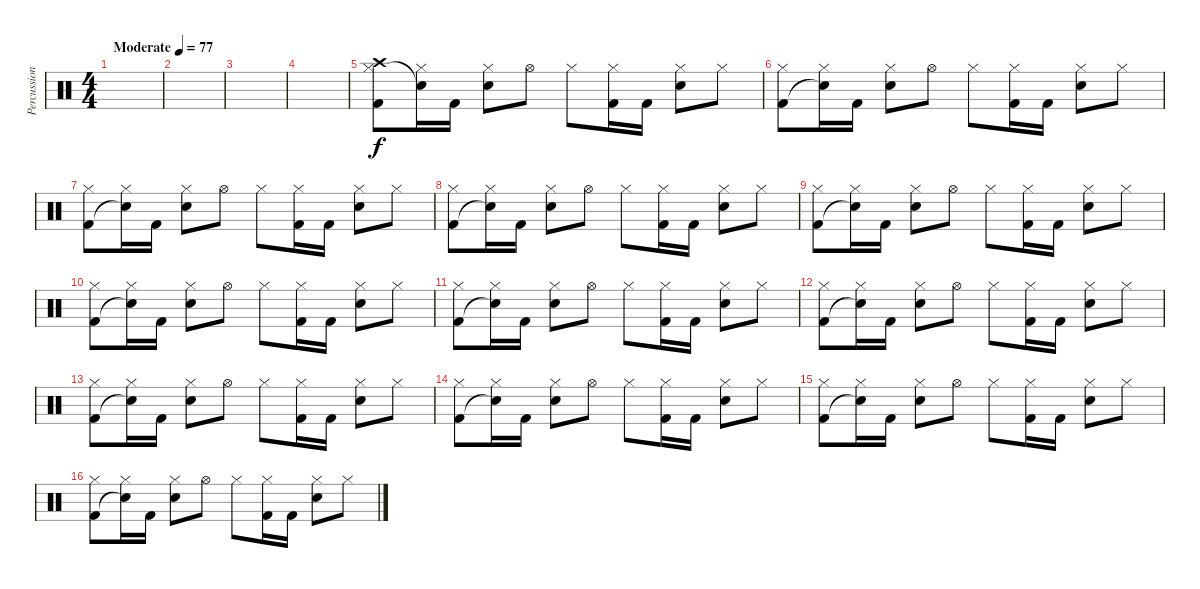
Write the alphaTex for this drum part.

\track ("Percussion" "Percussion") {instrument percussion}
\staff {score}
\articulation defaults
\ts (4 4)
\tempo (77 "Moderate")
\clef neutral
\ks c
|
|
|
|
("Crash high (hit)" "Hi-Hat (closed)" "Kick (hit) 2").8 ("Hi-Hat (closed)" "Snare (hit)"{t}).16 "Kick (hit) 2".16 ("Hi-Hat (closed)" "Electric Snare (hit)").8 "Hi-Hat (open)".8 "Hi-Hat (closed)".8 ("Hi-Hat (closed)" "Kick (hit) 2").16 "Kick (hit) 2".16 ("Hi-Hat (closed)" "Electric Snare (hit)").8 "Hi-Hat (closed)".8 |
("Hi-Hat (closed)" "Kick (hit) 2").8 ("Hi-Hat (closed)" "Snare (hit)"{t}).16 "Kick (hit) 2".16 ("Hi-Hat (closed)" "Electric Snare (hit)").8 "Hi-Hat (open)".8 "Hi-Hat (closed)".8 ("Hi-Hat (closed)" "Kick (hit) 2").16 "Kick (hit) 2".16 ("Hi-Hat (closed)" "Electric Snare (hit)").8 "Hi-Hat (closed)".8 |
("Hi-Hat (closed)" "Kick (hit) 2").8 ("Hi-Hat (closed)" "Snare (hit)"{t}).16 "Kick (hit) 2".16 ("Hi-Hat (closed)" "Electric Snare (hit)").8 "Hi-Hat (open)".8 "Hi-Hat (closed)".8 ("Hi-Hat (closed)" "Kick (hit) 2").16 "Kick (hit) 2".16 ("Hi-Hat (closed)" "Electric Snare (hit)").8 "Hi-Hat (closed)".8 |
("Hi-Hat (closed)" "Kick (hit) 2").8 ("Hi-Hat (closed)" "Snare (hit)"{t}).16 "Kick (hit) 2".16 ("Hi-Hat (closed)" "Electric Snare (hit)").8 "Hi-Hat (open)".8 "Hi-Hat (closed)".8 ("Hi-Hat (closed)" "Kick (hit) 2").16 "Kick (hit) 2".16 ("Hi-Hat (closed)" "Electric Snare (hit)").8 "Hi-Hat (closed)".8 |
("Hi-Hat (closed)" "Kick (hit) 2").8 ("Hi-Hat (closed)" "Snare (hit)"{t}).16 "Kick (hit) 2".16 ("Hi-Hat (closed)" "Electric Snare (hit)").8 "Hi-Hat (open)".8 "Hi-Hat (closed)".8 ("Hi-Hat (closed)" "Kick (hit) 2").16 "Kick (hit) 2".16 ("Hi-Hat (closed)" "Electric Snare (hit)").8 "Hi-Hat (closed)".8 |
("Hi-Hat (closed)" "Kick (hit) 2").8 ("Hi-Hat (closed)" "Snare (hit)"{t}).16 "Kick (hit) 2".16 ("Hi-Hat (closed)" "Electric Snare (hit)").8 "Hi-Hat (open)".8 "Hi-Hat (closed)".8 ("Hi-Hat (closed)" "Kick (hit) 2").16 "Kick (hit) 2".16 ("Hi-Hat (closed)" "Electric Snare (hit)").8 "Hi-Hat (closed)".8 |
("Hi-Hat (closed)" "Kick (hit) 2").8 ("Hi-Hat (closed)" "Snare (hit)"{t}).16 "Kick (hit) 2".16 ("Hi-Hat (closed)" "Electric Snare (hit)").8 "Hi-Hat (open)".8 "Hi-Hat (closed)".8 ("Hi-Hat (closed)" "Kick (hit) 2").16 "Kick (hit) 2".16 ("Hi-Hat (closed)" "Electric Snare (hit)").8 "Hi-Hat (closed)".8 |
("Hi-Hat (closed)" "Kick (hit) 2").8 ("Hi-Hat (closed)" "Snare (hit)"{t}).16 "Kick (hit) 2".16 ("Hi-Hat (closed)" "Electric Snare (hit)").8 "Hi-Hat (open)".8 "Hi-Hat (closed)".8 ("Hi-Hat (closed)" "Kick (hit) 2").16 "Kick (hit) 2".16 ("Hi-Hat (closed)" "Electric Snare (hit)").8 "Hi-Hat (closed)".8 |
("Hi-Hat (closed)" "Kick (hit) 2").8 ("Hi-Hat (closed)" "Snare (hit)"{t}).16 "Kick (hit) 2".16 ("Hi-Hat (closed)" "Electric Snare (hit)").8 "Hi-Hat (open)".8 "Hi-Hat (closed)".8 ("Hi-Hat (closed)" "Kick (hit) 2").16 "Kick (hit) 2".16 ("Hi-Hat (closed)" "Electric Snare (hit)").8 "Hi-Hat (closed)".8 |
("Hi-Hat (closed)" "Kick (hit) 2").8 ("Hi-Hat (closed)" "Snare (hit)"{t}).16 "Kick (hit) 2".16 ("Hi-Hat (closed)" "Electric Snare (hit)").8 "Hi-Hat (open)".8 "Hi-Hat (closed)".8 ("Hi-Hat (closed)" "Kick (hit) 2").16 "Kick (hit) 2".16 ("Hi-Hat (closed)" "Electric Snare (hit)").8 "Hi-Hat (closed)".8 |
("Hi-Hat (closed)" "Kick (hit) 2").8 ("Hi-Hat (closed)" "Snare (hit)"{t}).16 "Kick (hit) 2".16 ("Hi-Hat (closed)" "Electric Snare (hit)").8 "Hi-Hat (open)".8 "Hi-Hat (closed)".8 ("Hi-Hat (closed)" "Kick (hit) 2").16 "Kick (hit) 2".16 ("Hi-Hat (closed)" "Electric Snare (hit)").8 "Hi-Hat (closed)".8 |
("Hi-Hat (closed)" "Kick (hit) 2").8 ("Hi-Hat (closed)" "Snare (hit)"{t}).16 "Kick (hit) 2".16 ("Hi-Hat (closed)" "Electric Snare (hit)").8 "Hi-Hat (open)".8 "Hi-Hat (closed)".8 ("Hi-Hat (closed)" "Kick (hit) 2").16 "Kick (hit) 2".16 ("Hi-Hat (closed)" "Electric Snare (hit)").8 "Hi-Hat (closed)".8
